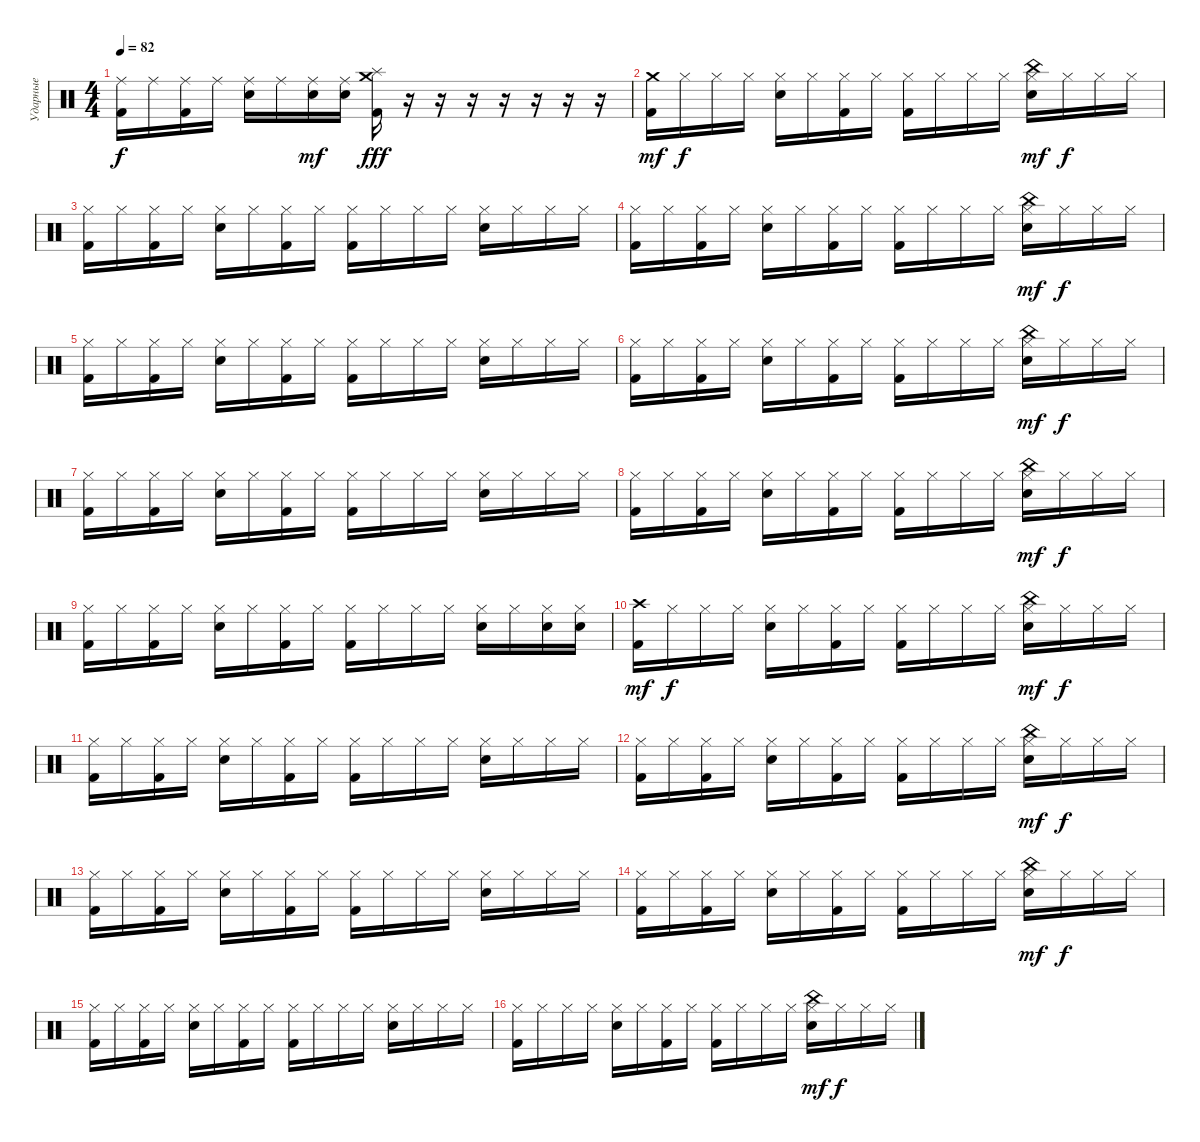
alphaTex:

\track ("Ударные" "Ударные") {instrument percussion}
\staff {score}
\articulation defaults
\ts (4 4)
\tempo 82
\clef neutral
\ks c
("Ride (middle)" "Kick (hit) 2").16{dy f} "Ride (middle)".16 ("Ride (middle)" "Kick (hit) 2").16 "Ride (middle)".16 ("Ride (middle)" "Electric Snare (hit)").16 "Ride (middle)".16 ("Ride (middle)" "Electric Snare (hit)").16{dy mf} ("Ride (middle)" "Electric Snare (hit)").16 ("Crash medium (hit)" "Splash (hit)" "Kick (hit) 2").16{dy fff} r.16 r.16 r.16 r.16 r.16 r.16 r.16 |
("Crash medium (hit)" "Kick (hit) 2").16{dy mf} "Hi-Hat (closed)".16{dy f} "Hi-Hat (closed)".16 "Hi-Hat (closed)".16 ("Hi-Hat (closed)" "Electric Snare (hit)").16 "Hi-Hat (closed)".16 ("Hi-Hat (closed)" "Kick (hit) 2").16 "Hi-Hat (closed)".16 ("Hi-Hat (closed)" "Kick (hit) 2").16 "Hi-Hat (closed)".16 "Hi-Hat (closed)".16 "Hi-Hat (closed)".16 ("Hi-Hat (closed)" "Electric Snare (hit)" "China (hit)").16{dy mf} "Hi-Hat (closed)".16{dy f} "Hi-Hat (closed)".16 "Hi-Hat (closed)".16 |
("Hi-Hat (closed)" "Kick (hit) 2").16 "Hi-Hat (closed)".16 ("Hi-Hat (closed)" "Kick (hit) 2").16 "Hi-Hat (closed)".16 ("Hi-Hat (closed)" "Electric Snare (hit)").16 "Hi-Hat (closed)".16 ("Hi-Hat (closed)" "Kick (hit) 2").16 "Hi-Hat (closed)".16 ("Hi-Hat (closed)" "Kick (hit) 2").16 "Hi-Hat (closed)".16 "Hi-Hat (closed)".16 "Hi-Hat (closed)".16 ("Hi-Hat (closed)" "Electric Snare (hit)").16 "Hi-Hat (closed)".16 "Hi-Hat (closed)".16 "Hi-Hat (closed)".16 |
("Hi-Hat (closed)" "Kick (hit) 2").16 "Hi-Hat (closed)".16 ("Hi-Hat (closed)" "Kick (hit) 2").16 "Hi-Hat (closed)".16 ("Hi-Hat (closed)" "Electric Snare (hit)").16 "Hi-Hat (closed)".16 ("Hi-Hat (closed)" "Kick (hit) 2").16 "Hi-Hat (closed)".16 ("Hi-Hat (closed)" "Kick (hit) 2").16 "Hi-Hat (closed)".16 "Hi-Hat (closed)".16 "Hi-Hat (closed)".16 ("Hi-Hat (closed)" "China (hit)" "Electric Snare (hit)").16{dy mf} "Hi-Hat (closed)".16{dy f} "Hi-Hat (closed)".16 "Hi-Hat (closed)".16 |
("Hi-Hat (closed)" "Kick (hit) 2").16 "Hi-Hat (closed)".16 ("Hi-Hat (closed)" "Kick (hit) 2").16 "Hi-Hat (closed)".16 ("Hi-Hat (closed)" "Electric Snare (hit)").16 "Hi-Hat (closed)".16 ("Hi-Hat (closed)" "Kick (hit) 2").16 "Hi-Hat (closed)".16 ("Hi-Hat (closed)" "Kick (hit) 2").16 "Hi-Hat (closed)".16 "Hi-Hat (closed)".16 "Hi-Hat (closed)".16 ("Hi-Hat (closed)" "Electric Snare (hit)").16 "Hi-Hat (closed)".16 "Hi-Hat (closed)".16 "Hi-Hat (closed)".16 |
("Hi-Hat (closed)" "Kick (hit) 2").16 "Hi-Hat (closed)".16 ("Hi-Hat (closed)" "Kick (hit) 2").16 "Hi-Hat (closed)".16 ("Hi-Hat (closed)" "Electric Snare (hit)").16 "Hi-Hat (closed)".16 ("Hi-Hat (closed)" "Kick (hit) 2").16 "Hi-Hat (closed)".16 ("Hi-Hat (closed)" "Kick (hit) 2").16 "Hi-Hat (closed)".16 "Hi-Hat (closed)".16 "Hi-Hat (closed)".16 ("Hi-Hat (closed)" "China (hit)" "Electric Snare (hit)").16{dy mf} "Hi-Hat (closed)".16{dy f} "Hi-Hat (closed)".16 "Hi-Hat (closed)".16 |
("Hi-Hat (closed)" "Kick (hit) 2").16 "Hi-Hat (closed)".16 ("Hi-Hat (closed)" "Kick (hit) 2").16 "Hi-Hat (closed)".16 ("Hi-Hat (closed)" "Electric Snare (hit)").16 "Hi-Hat (closed)".16 ("Hi-Hat (closed)" "Kick (hit) 2").16 "Hi-Hat (closed)".16 ("Hi-Hat (closed)" "Kick (hit) 2").16 "Hi-Hat (closed)".16 "Hi-Hat (closed)".16 "Hi-Hat (closed)".16 ("Hi-Hat (closed)" "Electric Snare (hit)").16 "Hi-Hat (closed)".16 "Hi-Hat (closed)".16 "Hi-Hat (closed)".16 |
("Hi-Hat (closed)" "Kick (hit) 2").16 "Hi-Hat (closed)".16 ("Hi-Hat (closed)" "Kick (hit) 2").16 "Hi-Hat (closed)".16 ("Hi-Hat (closed)" "Electric Snare (hit)").16 "Hi-Hat (closed)".16 ("Hi-Hat (closed)" "Kick (hit) 2").16 "Hi-Hat (closed)".16 ("Hi-Hat (closed)" "Kick (hit) 2").16 "Hi-Hat (closed)".16 "Hi-Hat (closed)".16 "Hi-Hat (closed)".16 ("Hi-Hat (closed)" "China (hit)" "Electric Snare (hit)").16{dy mf} "Hi-Hat (closed)".16{dy f} "Hi-Hat (closed)".16 "Hi-Hat (closed)".16 |
("Hi-Hat (closed)" "Kick (hit) 2").16 "Hi-Hat (closed)".16 ("Hi-Hat (closed)" "Kick (hit) 2").16 "Hi-Hat (closed)".16 ("Hi-Hat (closed)" "Electric Snare (hit)").16 "Hi-Hat (closed)".16 ("Hi-Hat (closed)" "Kick (hit) 2").16 "Hi-Hat (closed)".16 ("Hi-Hat (closed)" "Kick (hit) 2").16 "Hi-Hat (closed)".16 "Hi-Hat (closed)".16 "Hi-Hat (closed)".16 ("Hi-Hat (closed)" "Electric Snare (hit)").16 "Hi-Hat (closed)".16 ("Hi-Hat (closed)" "Electric Snare (hit)").16 ("Hi-Hat (closed)" "Electric Snare (hit)").16 |
("Crash high (hit)" "Kick (hit) 2").16{dy mf} "Hi-Hat (closed)".16{dy f} "Hi-Hat (closed)".16 "Hi-Hat (closed)".16 ("Hi-Hat (closed)" "Electric Snare (hit)").16 "Hi-Hat (closed)".16 ("Hi-Hat (closed)" "Kick (hit) 2").16 "Hi-Hat (closed)".16 ("Hi-Hat (closed)" "Kick (hit) 2").16 "Hi-Hat (closed)".16 "Hi-Hat (closed)".16 "Hi-Hat (closed)".16 ("Hi-Hat (closed)" "China (hit)" "Electric Snare (hit)").16{dy mf} "Hi-Hat (closed)".16{dy f} "Hi-Hat (closed)".16 "Hi-Hat (closed)".16 |
("Hi-Hat (closed)" "Kick (hit) 2").16 "Hi-Hat (closed)".16 ("Hi-Hat (closed)" "Kick (hit) 2").16 "Hi-Hat (closed)".16 ("Hi-Hat (closed)" "Electric Snare (hit)").16 "Hi-Hat (closed)".16 ("Hi-Hat (closed)" "Kick (hit) 2").16 "Hi-Hat (closed)".16 ("Hi-Hat (closed)" "Kick (hit) 2").16 "Hi-Hat (closed)".16 "Hi-Hat (closed)".16 "Hi-Hat (closed)".16 ("Hi-Hat (closed)" "Electric Snare (hit)").16 "Hi-Hat (closed)".16 "Hi-Hat (closed)".16 "Hi-Hat (closed)".16 |
("Hi-Hat (closed)" "Kick (hit) 2").16 "Hi-Hat (closed)".16 ("Hi-Hat (closed)" "Kick (hit) 2").16 "Hi-Hat (closed)".16 ("Hi-Hat (closed)" "Electric Snare (hit)").16 "Hi-Hat (closed)".16 ("Hi-Hat (closed)" "Kick (hit) 2").16 "Hi-Hat (closed)".16 ("Hi-Hat (closed)" "Kick (hit) 2").16 "Hi-Hat (closed)".16 "Hi-Hat (closed)".16 "Hi-Hat (closed)".16 ("Hi-Hat (closed)" "China (hit)" "Electric Snare (hit)").16{dy mf} "Hi-Hat (closed)".16{dy f} "Hi-Hat (closed)".16 "Hi-Hat (closed)".16 |
("Hi-Hat (closed)" "Kick (hit) 2").16 "Hi-Hat (closed)".16 ("Hi-Hat (closed)" "Kick (hit) 2").16 "Hi-Hat (closed)".16 ("Hi-Hat (closed)" "Electric Snare (hit)").16 "Hi-Hat (closed)".16 ("Hi-Hat (closed)" "Kick (hit) 2").16 "Hi-Hat (closed)".16 ("Hi-Hat (closed)" "Kick (hit) 2").16 "Hi-Hat (closed)".16 "Hi-Hat (closed)".16 "Hi-Hat (closed)".16 ("Hi-Hat (closed)" "Electric Snare (hit)").16 "Hi-Hat (closed)".16 "Hi-Hat (closed)".16 "Hi-Hat (closed)".16 |
("Hi-Hat (closed)" "Kick (hit) 2").16 "Hi-Hat (closed)".16 ("Hi-Hat (closed)" "Kick (hit) 2").16 "Hi-Hat (closed)".16 ("Hi-Hat (closed)" "Electric Snare (hit)").16 "Hi-Hat (closed)".16 ("Hi-Hat (closed)" "Kick (hit) 2").16 "Hi-Hat (closed)".16 ("Hi-Hat (closed)" "Kick (hit) 2").16 "Hi-Hat (closed)".16 "Hi-Hat (closed)".16 "Hi-Hat (closed)".16 ("Hi-Hat (closed)" "China (hit)" "Electric Snare (hit)").16{dy mf} "Hi-Hat (closed)".16{dy f} "Hi-Hat (closed)".16 "Hi-Hat (closed)".16 |
("Hi-Hat (closed)" "Kick (hit) 2").16 "Hi-Hat (closed)".16 ("Hi-Hat (closed)" "Kick (hit) 2").16 "Hi-Hat (closed)".16 ("Hi-Hat (closed)" "Electric Snare (hit)").16 "Hi-Hat (closed)".16 ("Hi-Hat (closed)" "Kick (hit) 2").16 "Hi-Hat (closed)".16 ("Hi-Hat (closed)" "Kick (hit) 2").16 "Hi-Hat (closed)".16 "Hi-Hat (closed)".16 "Hi-Hat (closed)".16 ("Hi-Hat (closed)" "Electric Snare (hit)").16 "Hi-Hat (closed)".16 "Hi-Hat (closed)".16 "Hi-Hat (closed)".16 |
("Hi-Hat (closed)" "Kick (hit) 2").16 "Hi-Hat (closed)".16 "Hi-Hat (closed)".16 "Hi-Hat (closed)".16 ("Hi-Hat (closed)" "Electric Snare (hit)").16 "Hi-Hat (closed)".16 ("Hi-Hat (closed)" "Kick (hit) 2").16 "Hi-Hat (closed)".16 ("Hi-Hat (closed)" "Kick (hit) 2").16 "Hi-Hat (closed)".16 "Hi-Hat (closed)".16 "Hi-Hat (closed)".16 ("Hi-Hat (closed)" "China (hit)" "Electric Snare (hit)").16{dy mf} "Hi-Hat (closed)".16{dy f} "Hi-Hat (closed)".16 "Hi-Hat (closed)".16
